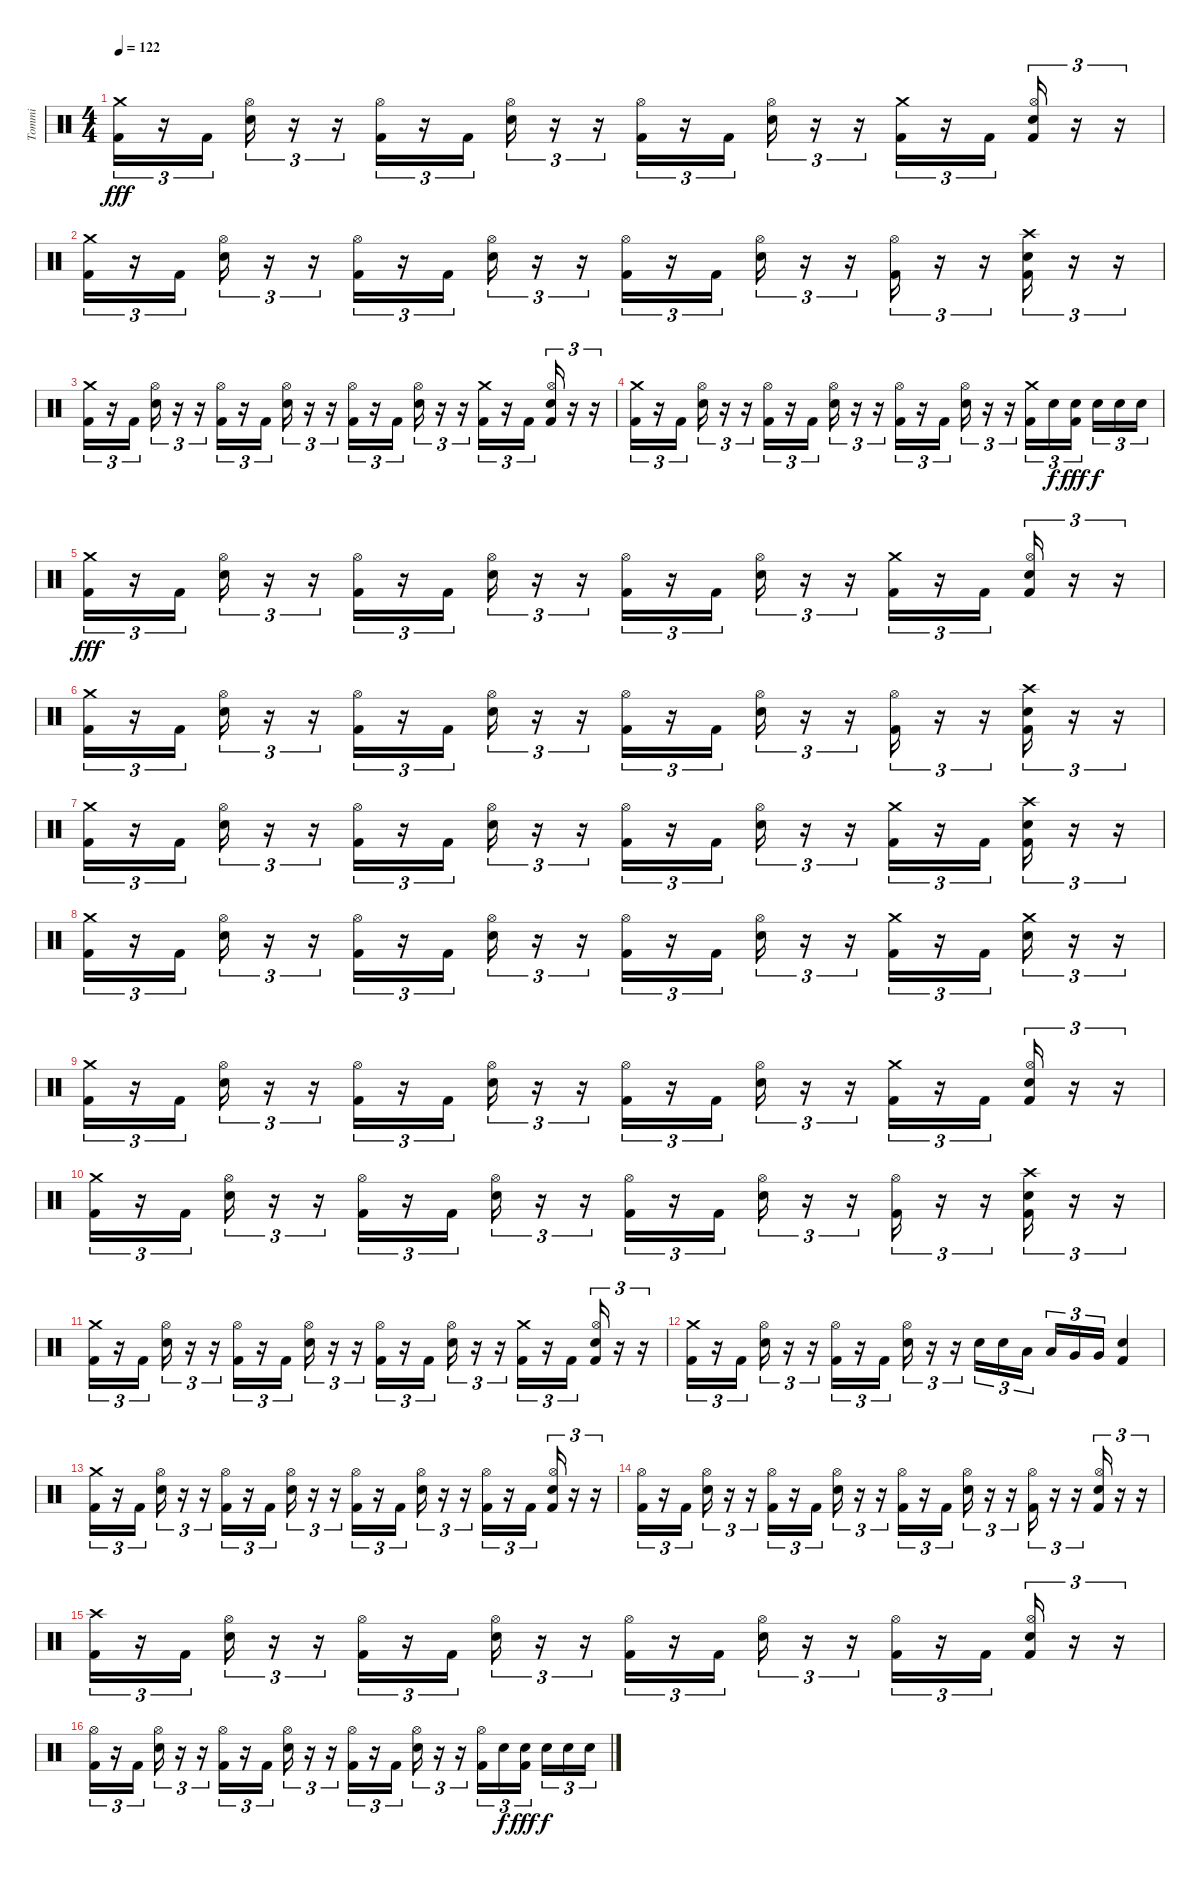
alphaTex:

\track ("Tommi" "Tommi") {instrument percussion}
\staff {score}
\articulation defaults
\ts (4 4)
\tempo 122
\clef neutral
\ks c
("Crash medium (hit)" "Kick (hit) 2").16{tu (3 2) dy fff} r.16{tu (3 2)} "Kick (hit) 2".16{tu (3 2)} ("Hi-Hat (open)" "Snare (hit) 2").16{tu (3 2)} r.16{tu (3 2)} r.16{tu (3 2)} ("Hi-Hat (open)" "Kick (hit) 2").16{tu (3 2)} r.16{tu (3 2)} "Kick (hit) 2".16{tu (3 2)} ("Hi-Hat (open)" "Snare (hit) 2").16{tu (3 2)} r.16{tu (3 2)} r.16{tu (3 2)} ("Hi-Hat (open)" "Kick (hit) 2").16{tu (3 2)} r.16{tu (3 2)} "Kick (hit) 2".16{tu (3 2)} ("Hi-Hat (open)" "Snare (hit) 2").16{tu (3 2)} r.16{tu (3 2)} r.16{tu (3 2)} ("Crash medium (hit)" "Kick (hit) 2").16{tu (3 2)} r.16{tu (3 2)} "Kick (hit) 2".16{tu (3 2)} ("Hi-Hat (open)" "Snare (hit) 2" "Kick (hit) 2").16{tu (3 2)} r.16{tu (3 2)} r.16{tu (3 2)} |
("Crash medium (hit)" "Kick (hit) 2").16{tu (3 2)} r.16{tu (3 2)} "Kick (hit) 2".16{tu (3 2)} ("Hi-Hat (open)" "Snare (hit) 2").16{tu (3 2)} r.16{tu (3 2)} r.16{tu (3 2)} ("Hi-Hat (open)" "Kick (hit) 2").16{tu (3 2)} r.16{tu (3 2)} "Kick (hit) 2".16{tu (3 2)} ("Hi-Hat (open)" "Snare (hit) 2").16{tu (3 2)} r.16{tu (3 2)} r.16{tu (3 2)} ("Hi-Hat (open)" "Kick (hit) 2").16{tu (3 2)} r.16{tu (3 2)} "Kick (hit) 2".16{tu (3 2)} ("Hi-Hat (open)" "Snare (hit) 2").16{tu (3 2)} r.16{tu (3 2)} r.16{tu (3 2)} ("Hi-Hat (open)" "Kick (hit) 2").16{tu (3 2)} r.16{tu (3 2)} r.16{tu (3 2)} ("Crash high (hit)" "Snare (hit) 2" "Kick (hit) 2").16{tu (3 2)} r.16{tu (3 2)} r.16{tu (3 2)} |
("Crash medium (hit)" "Kick (hit) 2").16{tu (3 2)} r.16{tu (3 2)} "Kick (hit) 2".16{tu (3 2)} ("Hi-Hat (open)" "Snare (hit) 2").16{tu (3 2)} r.16{tu (3 2)} r.16{tu (3 2)} ("Hi-Hat (open)" "Kick (hit) 2").16{tu (3 2)} r.16{tu (3 2)} "Kick (hit) 2".16{tu (3 2)} ("Hi-Hat (open)" "Snare (hit) 2").16{tu (3 2)} r.16{tu (3 2)} r.16{tu (3 2)} ("Hi-Hat (open)" "Kick (hit) 2").16{tu (3 2)} r.16{tu (3 2)} "Kick (hit) 2".16{tu (3 2)} ("Hi-Hat (open)" "Snare (hit) 2").16{tu (3 2)} r.16{tu (3 2)} r.16{tu (3 2)} ("Crash medium (hit)" "Kick (hit) 2").16{tu (3 2)} r.16{tu (3 2)} "Kick (hit) 2".16{tu (3 2)} ("Hi-Hat (open)" "Snare (hit) 2" "Kick (hit) 2").16{tu (3 2)} r.16{tu (3 2)} r.16{tu (3 2)} |
("Crash medium (hit)" "Kick (hit) 2").16{tu (3 2)} r.16{tu (3 2)} "Kick (hit) 2".16{tu (3 2)} ("Hi-Hat (open)" "Snare (hit) 2").16{tu (3 2)} r.16{tu (3 2)} r.16{tu (3 2)} ("Hi-Hat (open)" "Kick (hit) 2").16{tu (3 2)} r.16{tu (3 2)} "Kick (hit) 2".16{tu (3 2)} ("Hi-Hat (open)" "Snare (hit) 2").16{tu (3 2)} r.16{tu (3 2)} r.16{tu (3 2)} ("Hi-Hat (open)" "Kick (hit) 2").16{tu (3 2)} r.16{tu (3 2)} "Kick (hit) 2".16{tu (3 2)} ("Hi-Hat (open)" "Snare (hit) 2").16{tu (3 2)} r.16{tu (3 2)} r.16{tu (3 2)} ("Crash medium (hit)" "Kick (hit) 2").16{tu (3 2)} "Snare (hit) 2".16{tu (3 2) dy f} ("Snare (hit) 2" "Kick (hit) 2").16{tu (3 2) dy fff beam splitsecondary} "Snare (hit) 2".16{tu (3 2) dy f} "Snare (hit) 2".16{tu (3 2)} "Snare (hit) 2".16{tu (3 2)} |
("Crash medium (hit)" "Kick (hit) 2").16{tu (3 2) dy fff} r.16{tu (3 2)} "Kick (hit) 2".16{tu (3 2)} ("Hi-Hat (open)" "Snare (hit) 2").16{tu (3 2)} r.16{tu (3 2)} r.16{tu (3 2)} ("Hi-Hat (open)" "Kick (hit) 2").16{tu (3 2)} r.16{tu (3 2)} "Kick (hit) 2".16{tu (3 2)} ("Hi-Hat (open)" "Snare (hit) 2").16{tu (3 2)} r.16{tu (3 2)} r.16{tu (3 2)} ("Hi-Hat (open)" "Kick (hit) 2").16{tu (3 2)} r.16{tu (3 2)} "Kick (hit) 2".16{tu (3 2)} ("Hi-Hat (open)" "Snare (hit) 2").16{tu (3 2)} r.16{tu (3 2)} r.16{tu (3 2)} ("Crash medium (hit)" "Kick (hit) 2").16{tu (3 2)} r.16{tu (3 2)} "Kick (hit) 2".16{tu (3 2)} ("Hi-Hat (open)" "Snare (hit) 2" "Kick (hit) 2").16{tu (3 2)} r.16{tu (3 2)} r.16{tu (3 2)} |
("Crash medium (hit)" "Kick (hit) 2").16{tu (3 2)} r.16{tu (3 2)} "Kick (hit) 2".16{tu (3 2)} ("Hi-Hat (open)" "Snare (hit) 2").16{tu (3 2)} r.16{tu (3 2)} r.16{tu (3 2)} ("Hi-Hat (open)" "Kick (hit) 2").16{tu (3 2)} r.16{tu (3 2)} "Kick (hit) 2".16{tu (3 2)} ("Hi-Hat (open)" "Snare (hit) 2").16{tu (3 2)} r.16{tu (3 2)} r.16{tu (3 2)} ("Hi-Hat (open)" "Kick (hit) 2").16{tu (3 2)} r.16{tu (3 2)} "Kick (hit) 2".16{tu (3 2)} ("Hi-Hat (open)" "Snare (hit) 2").16{tu (3 2)} r.16{tu (3 2)} r.16{tu (3 2)} ("Hi-Hat (open)" "Kick (hit) 2").16{tu (3 2)} r.16{tu (3 2)} r.16{tu (3 2)} ("Crash high (hit)" "Snare (hit) 2" "Kick (hit) 2").16{tu (3 2)} r.16{tu (3 2)} r.16{tu (3 2)} |
("Crash medium (hit)" "Kick (hit) 2").16{tu (3 2)} r.16{tu (3 2)} "Kick (hit) 2".16{tu (3 2)} ("Hi-Hat (open)" "Snare (hit) 2").16{tu (3 2)} r.16{tu (3 2)} r.16{tu (3 2)} ("Hi-Hat (open)" "Kick (hit) 2").16{tu (3 2)} r.16{tu (3 2)} "Kick (hit) 2".16{tu (3 2)} ("Hi-Hat (open)" "Snare (hit) 2").16{tu (3 2)} r.16{tu (3 2)} r.16{tu (3 2)} ("Hi-Hat (open)" "Kick (hit) 2").16{tu (3 2)} r.16{tu (3 2)} "Kick (hit) 2".16{tu (3 2)} ("Hi-Hat (open)" "Snare (hit) 2").16{tu (3 2)} r.16{tu (3 2)} r.16{tu (3 2)} ("Crash medium (hit)" "Kick (hit) 2").16{tu (3 2)} r.16{tu (3 2)} "Kick (hit) 2".16{tu (3 2)} ("Crash high (hit)" "Snare (hit) 2" "Kick (hit) 2").16{tu (3 2)} r.16{tu (3 2)} r.16{tu (3 2)} |
("Crash medium (hit)" "Kick (hit) 2").16{tu (3 2)} r.16{tu (3 2)} "Kick (hit) 2".16{tu (3 2)} ("Hi-Hat (open)" "Snare (hit) 2").16{tu (3 2)} r.16{tu (3 2)} r.16{tu (3 2)} ("Hi-Hat (open)" "Kick (hit) 2").16{tu (3 2)} r.16{tu (3 2)} "Kick (hit) 2".16{tu (3 2)} ("Hi-Hat (open)" "Snare (hit) 2").16{tu (3 2)} r.16{tu (3 2)} r.16{tu (3 2)} ("Hi-Hat (open)" "Kick (hit) 2").16{tu (3 2)} r.16{tu (3 2)} "Kick (hit) 2".16{tu (3 2)} ("Hi-Hat (open)" "Snare (hit) 2").16{tu (3 2)} r.16{tu (3 2)} r.16{tu (3 2)} ("Crash medium (hit)" "Kick (hit) 2").16{tu (3 2)} r.16{tu (3 2)} "Kick (hit) 2".16{tu (3 2)} ("Crash medium (hit)" "Snare (hit) 2").16{tu (3 2)} r.16{tu (3 2)} r.16{tu (3 2)} |
("Crash medium (hit)" "Kick (hit) 2").16{tu (3 2)} r.16{tu (3 2)} "Kick (hit) 2".16{tu (3 2)} ("Hi-Hat (open)" "Snare (hit) 2").16{tu (3 2)} r.16{tu (3 2)} r.16{tu (3 2)} ("Hi-Hat (open)" "Kick (hit) 2").16{tu (3 2)} r.16{tu (3 2)} "Kick (hit) 2".16{tu (3 2)} ("Hi-Hat (open)" "Snare (hit) 2").16{tu (3 2)} r.16{tu (3 2)} r.16{tu (3 2)} ("Hi-Hat (open)" "Kick (hit) 2").16{tu (3 2)} r.16{tu (3 2)} "Kick (hit) 2".16{tu (3 2)} ("Hi-Hat (open)" "Snare (hit) 2").16{tu (3 2)} r.16{tu (3 2)} r.16{tu (3 2)} ("Crash medium (hit)" "Kick (hit) 2").16{tu (3 2)} r.16{tu (3 2)} "Kick (hit) 2".16{tu (3 2)} ("Hi-Hat (open)" "Snare (hit) 2" "Kick (hit) 2").16{tu (3 2)} r.16{tu (3 2)} r.16{tu (3 2)} |
("Crash medium (hit)" "Kick (hit) 2").16{tu (3 2)} r.16{tu (3 2)} "Kick (hit) 2".16{tu (3 2)} ("Hi-Hat (open)" "Snare (hit) 2").16{tu (3 2)} r.16{tu (3 2)} r.16{tu (3 2)} ("Hi-Hat (open)" "Kick (hit) 2").16{tu (3 2)} r.16{tu (3 2)} "Kick (hit) 2".16{tu (3 2)} ("Hi-Hat (open)" "Snare (hit) 2").16{tu (3 2)} r.16{tu (3 2)} r.16{tu (3 2)} ("Hi-Hat (open)" "Kick (hit) 2").16{tu (3 2)} r.16{tu (3 2)} "Kick (hit) 2".16{tu (3 2)} ("Hi-Hat (open)" "Snare (hit) 2").16{tu (3 2)} r.16{tu (3 2)} r.16{tu (3 2)} ("Hi-Hat (open)" "Kick (hit) 2").16{tu (3 2)} r.16{tu (3 2)} r.16{tu (3 2)} ("Crash high (hit)" "Snare (hit) 2" "Kick (hit) 2").16{tu (3 2)} r.16{tu (3 2)} r.16{tu (3 2)} |
("Crash medium (hit)" "Kick (hit) 2").16{tu (3 2)} r.16{tu (3 2)} "Kick (hit) 2".16{tu (3 2)} ("Hi-Hat (open)" "Snare (hit) 2").16{tu (3 2)} r.16{tu (3 2)} r.16{tu (3 2)} ("Hi-Hat (open)" "Kick (hit) 2").16{tu (3 2)} r.16{tu (3 2)} "Kick (hit) 2".16{tu (3 2)} ("Hi-Hat (open)" "Snare (hit) 2").16{tu (3 2)} r.16{tu (3 2)} r.16{tu (3 2)} ("Hi-Hat (open)" "Kick (hit) 2").16{tu (3 2)} r.16{tu (3 2)} "Kick (hit) 2".16{tu (3 2)} ("Hi-Hat (open)" "Snare (hit) 2").16{tu (3 2)} r.16{tu (3 2)} r.16{tu (3 2)} ("Crash medium (hit)" "Kick (hit) 2").16{tu (3 2)} r.16{tu (3 2)} "Kick (hit) 2".16{tu (3 2)} ("Hi-Hat (open)" "Snare (hit) 2" "Kick (hit) 2").16{tu (3 2)} r.16{tu (3 2)} r.16{tu (3 2)} |
("Crash medium (hit)" "Kick (hit) 2").16{tu (3 2)} r.16{tu (3 2)} "Kick (hit) 2".16{tu (3 2)} ("Hi-Hat (open)" "Snare (hit) 2").16{tu (3 2)} r.16{tu (3 2)} r.16{tu (3 2)} ("Hi-Hat (open)" "Kick (hit) 2").16{tu (3 2)} r.16{tu (3 2)} "Kick (hit) 2".16{tu (3 2)} ("Hi-Hat (open)" "Snare (hit) 2").16{tu (3 2)} r.16{tu (3 2)} r.16{tu (3 2)} "Snare (hit) 2".16{tu (3 2)} "Snare (hit) 2".16{tu (3 2)} "Low Tom (hit)".16{tu (3 2) beam splitsecondary} "Low Tom (hit)".16{tu (3 2)} "Very Low Tom (hit)".16{tu (3 2)} "Very Low Tom (hit)".16{tu (3 2)} ("Snare (hit) 2" "Kick (hit) 2").4 |
("Crash medium (hit)" "Kick (hit) 2").16{tu (3 2)} r.16{tu (3 2)} "Kick (hit) 2".16{tu (3 2)} ("Hi-Hat (open)" "Snare (hit) 2").16{tu (3 2)} r.16{tu (3 2)} r.16{tu (3 2)} ("Hi-Hat (open)" "Kick (hit) 2").16{tu (3 2)} r.16{tu (3 2)} "Kick (hit) 2".16{tu (3 2)} ("Hi-Hat (open)" "Snare (hit) 2").16{tu (3 2)} r.16{tu (3 2)} r.16{tu (3 2)} ("Hi-Hat (open)" "Kick (hit) 2").16{tu (3 2)} r.16{tu (3 2)} "Kick (hit) 2".16{tu (3 2)} ("Hi-Hat (open)" "Snare (hit) 2").16{tu (3 2)} r.16{tu (3 2)} r.16{tu (3 2)} ("Hi-Hat (open)" "Kick (hit) 2").16{tu (3 2)} r.16{tu (3 2)} "Kick (hit) 2".16{tu (3 2)} ("Hi-Hat (open)" "Snare (hit) 2" "Kick (hit) 2").16{tu (3 2)} r.16{tu (3 2)} r.16{tu (3 2)} |
("Hi-Hat (open)" "Kick (hit) 2").16{tu (3 2)} r.16{tu (3 2)} "Kick (hit) 2".16{tu (3 2)} ("Hi-Hat (open)" "Snare (hit) 2").16{tu (3 2)} r.16{tu (3 2)} r.16{tu (3 2)} ("Hi-Hat (open)" "Kick (hit) 2").16{tu (3 2)} r.16{tu (3 2)} "Kick (hit) 2".16{tu (3 2)} ("Hi-Hat (open)" "Snare (hit) 2").16{tu (3 2)} r.16{tu (3 2)} r.16{tu (3 2)} ("Hi-Hat (open)" "Kick (hit) 2").16{tu (3 2)} r.16{tu (3 2)} "Kick (hit) 2".16{tu (3 2)} ("Hi-Hat (open)" "Snare (hit) 2").16{tu (3 2)} r.16{tu (3 2)} r.16{tu (3 2)} ("Hi-Hat (open)" "Kick (hit) 2").16{tu (3 2)} r.16{tu (3 2)} r.16{tu (3 2)} ("Hi-Hat (open)" "Snare (hit) 2" "Kick (hit) 2").16{tu (3 2)} r.16{tu (3 2)} r.16{tu (3 2)} |
("Crash high (hit)" "Kick (hit) 2").16{tu (3 2)} r.16{tu (3 2)} "Kick (hit) 2".16{tu (3 2)} ("Hi-Hat (open)" "Snare (hit) 2").16{tu (3 2)} r.16{tu (3 2)} r.16{tu (3 2)} ("Hi-Hat (open)" "Kick (hit) 2").16{tu (3 2)} r.16{tu (3 2)} "Kick (hit) 2".16{tu (3 2)} ("Hi-Hat (open)" "Snare (hit) 2").16{tu (3 2)} r.16{tu (3 2)} r.16{tu (3 2)} ("Hi-Hat (open)" "Kick (hit) 2").16{tu (3 2)} r.16{tu (3 2)} "Kick (hit) 2".16{tu (3 2)} ("Hi-Hat (open)" "Snare (hit) 2").16{tu (3 2)} r.16{tu (3 2)} r.16{tu (3 2)} ("Hi-Hat (open)" "Kick (hit) 2").16{tu (3 2)} r.16{tu (3 2)} "Kick (hit) 2".16{tu (3 2)} ("Hi-Hat (open)" "Snare (hit) 2" "Kick (hit) 2").16{tu (3 2)} r.16{tu (3 2)} r.16{tu (3 2)} |
("Hi-Hat (open)" "Kick (hit) 2").16{tu (3 2)} r.16{tu (3 2)} "Kick (hit) 2".16{tu (3 2)} ("Hi-Hat (open)" "Snare (hit) 2").16{tu (3 2)} r.16{tu (3 2)} r.16{tu (3 2)} ("Hi-Hat (open)" "Kick (hit) 2").16{tu (3 2)} r.16{tu (3 2)} "Kick (hit) 2".16{tu (3 2)} ("Hi-Hat (open)" "Snare (hit) 2").16{tu (3 2)} r.16{tu (3 2)} r.16{tu (3 2)} ("Hi-Hat (open)" "Kick (hit) 2").16{tu (3 2)} r.16{tu (3 2)} "Kick (hit) 2".16{tu (3 2)} ("Hi-Hat (open)" "Snare (hit) 2").16{tu (3 2)} r.16{tu (3 2)} r.16{tu (3 2)} ("Hi-Hat (open)" "Kick (hit) 2").16{tu (3 2)} "Snare (hit) 2".16{tu (3 2) dy f} ("Snare (hit) 2" "Kick (hit) 2").16{tu (3 2) dy fff beam splitsecondary} "Snare (hit) 2".16{tu (3 2) dy f} "Snare (hit) 2".16{tu (3 2)} "Snare (hit) 2".16{tu (3 2)}
